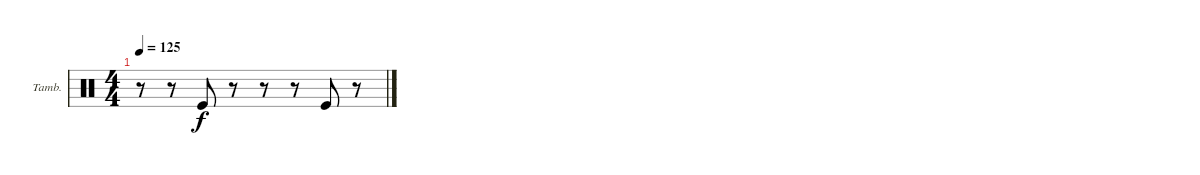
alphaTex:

\bracketExtendMode nobrackets
\firstSystemTrackNameOrientation horizontal
\otherSystemsTrackNameOrientation horizontal
\defaultBarNumberDisplay FirstOfSystem
\track ("Tambourine" "Tamb.") {instrument percussion}
\staff {score}
\articulation defaults
\ts (4 4)
\tempo 125
\clef neutral
\ks c
r.8{dy f} r.8 "Kick (hit)".8 r.8 r.8 r.8 "Kick (hit)".8 r.8
